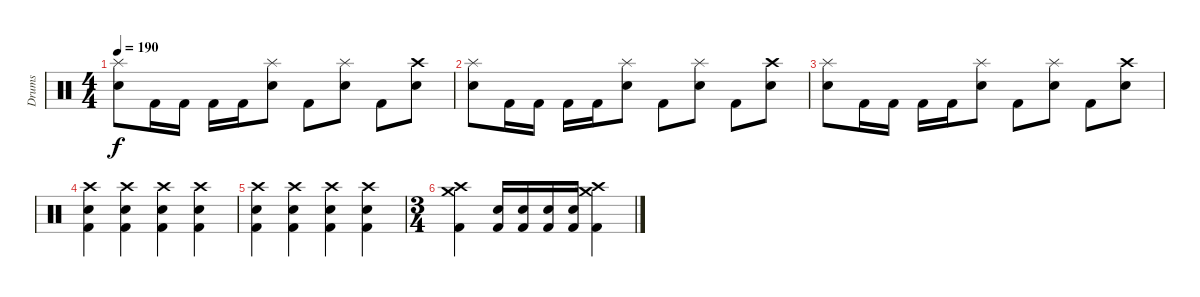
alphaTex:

\track ("Drums" "Drums") {instrument percussion}
\staff {score}
\articulation defaults
\ts (4 4)
\tempo 190
\clef neutral
\ks c
("Splash (hit)" "Snare (hit) 2").8{dy f} "Kick (hit) 2".16 "Kick (hit) 2".16 "Kick (hit) 2".16 "Kick (hit) 2".16 ("Splash (hit)" "Snare (hit) 2").8 "Kick (hit) 2".8 ("Splash (hit)" "Snare (hit) 2").8 "Kick (hit) 2".8 ("Crash high (hit)" "Snare (hit) 2").8 |
("Splash (hit)" "Snare (hit) 2").8 "Kick (hit) 2".16 "Kick (hit) 2".16 "Kick (hit) 2".16 "Kick (hit) 2".16 ("Splash (hit)" "Snare (hit) 2").8 "Kick (hit) 2".8 ("Splash (hit)" "Snare (hit) 2").8 "Kick (hit) 2".8 ("Crash high (hit)" "Snare (hit) 2").8 |
("Splash (hit)" "Snare (hit) 2").8 "Kick (hit) 2".16 "Kick (hit) 2".16 "Kick (hit) 2".16 "Kick (hit) 2".16 ("Splash (hit)" "Snare (hit) 2").8 "Kick (hit) 2".8 ("Splash (hit)" "Snare (hit) 2").8 "Kick (hit) 2".8 ("Crash high (hit)" "Snare (hit) 2").8 |
("Crash high (hit)" "Snare (hit) 2" "Kick (hit) 2").4 ("Crash high (hit)" "Snare (hit) 2" "Kick (hit) 2").4 ("Crash high (hit)" "Snare (hit) 2" "Kick (hit) 2").4 ("Crash high (hit)" "Snare (hit) 2" "Kick (hit) 2").4 |
("Crash high (hit)" "Snare (hit) 2" "Kick (hit) 2").4 ("Crash high (hit)" "Snare (hit) 2" "Kick (hit) 2").4 ("Crash high (hit)" "Snare (hit) 2" "Kick (hit) 2").4 ("Crash high (hit)" "Snare (hit) 2" "Kick (hit) 2").4 |
\ts (3 4)
("Crash medium (hit)" "Crash high (hit)" "Kick (hit) 2").4 ("Snare (hit) 2" "Kick (hit) 2").16 ("Snare (hit) 2" "Kick (hit) 2").16 ("Snare (hit) 2" "Kick (hit) 2").16 ("Snare (hit) 2" "Kick (hit) 2").16 ("Crash medium (hit)" "Crash high (hit)" "Kick (hit) 2").4
